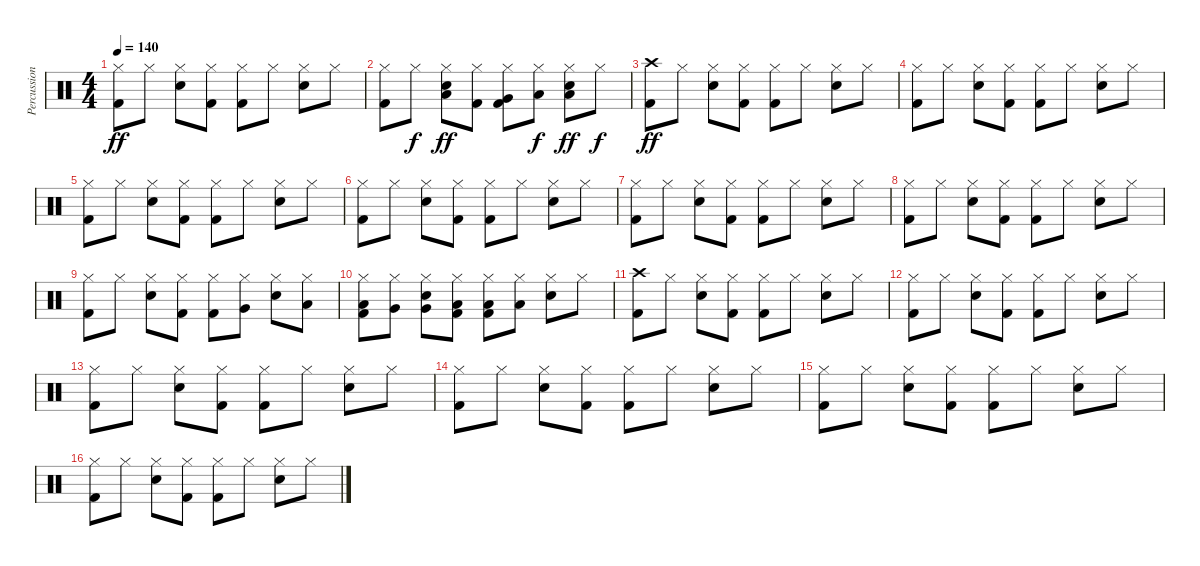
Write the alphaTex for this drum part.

\track ("Percussion" "Percussion") {instrument percussion}
\staff {score}
\articulation defaults
\ts (4 4)
\tempo 140
\clef neutral
\ks c
("Hi-Hat (closed)" "Kick (hit) 2").8{dy ff} "Hi-Hat (closed)".8 ("Hi-Hat (closed)" "Snare (hit) 2").8 ("Hi-Hat (closed)" "Kick (hit) 2").8 ("Hi-Hat (closed)" "Kick (hit) 2").8 "Hi-Hat (closed)".8 ("Hi-Hat (closed)" "Snare (hit) 2").8 "Hi-Hat (closed)".8 |
("Hi-Hat (closed)" "Kick (hit) 2").8 "Hi-Hat (closed)".8{dy f} ("Hi-Hat (closed)" "Snare (hit) 2" "Low Tom (hit)").8{dy ff} ("Hi-Hat (closed)" "Kick (hit) 2").8 ("Hi-Hat (closed)" "Kick (hit) 2" "Very Low Tom (hit)").8 ("Hi-Hat (closed)" "Low Floor Tom (hit)").8{dy f} ("Hi-Hat (closed)" "Snare (hit) 2" "Low Floor Tom (hit)").8{dy ff} "Hi-Hat (closed)".8{dy f} |
("Crash high (hit)" "Kick (hit) 2").8{dy ff} "Hi-Hat (closed)".8 ("Hi-Hat (closed)" "Snare (hit) 2").8 ("Hi-Hat (closed)" "Kick (hit) 2").8 ("Hi-Hat (closed)" "Kick (hit) 2").8 "Hi-Hat (closed)".8 ("Hi-Hat (closed)" "Snare (hit) 2").8 "Hi-Hat (closed)".8 |
("Hi-Hat (closed)" "Kick (hit) 2").8 "Hi-Hat (closed)".8 ("Hi-Hat (closed)" "Snare (hit) 2").8 ("Hi-Hat (closed)" "Kick (hit) 2").8 ("Hi-Hat (closed)" "Kick (hit) 2").8 "Hi-Hat (closed)".8 ("Hi-Hat (closed)" "Snare (hit) 2").8 "Hi-Hat (closed)".8 |
("Hi-Hat (closed)" "Kick (hit) 2").8 "Hi-Hat (closed)".8 ("Hi-Hat (closed)" "Snare (hit) 2").8 ("Hi-Hat (closed)" "Kick (hit) 2").8 ("Hi-Hat (closed)" "Kick (hit) 2").8 "Hi-Hat (closed)".8 ("Hi-Hat (closed)" "Snare (hit) 2").8 "Hi-Hat (closed)".8 |
("Hi-Hat (closed)" "Kick (hit) 2").8 "Hi-Hat (closed)".8 ("Hi-Hat (closed)" "Snare (hit) 2").8 ("Hi-Hat (closed)" "Kick (hit) 2").8 ("Hi-Hat (closed)" "Kick (hit) 2").8 "Hi-Hat (closed)".8 ("Hi-Hat (closed)" "Snare (hit) 2").8 "Hi-Hat (closed)".8 |
("Hi-Hat (closed)" "Kick (hit) 2").8 "Hi-Hat (closed)".8 ("Hi-Hat (closed)" "Snare (hit) 2").8 ("Hi-Hat (closed)" "Kick (hit) 2").8 ("Hi-Hat (closed)" "Kick (hit) 2").8 "Hi-Hat (closed)".8 ("Hi-Hat (closed)" "Snare (hit) 2").8 "Hi-Hat (closed)".8 |
("Hi-Hat (closed)" "Kick (hit) 2").8 "Hi-Hat (closed)".8 ("Hi-Hat (closed)" "Snare (hit) 2").8 ("Hi-Hat (closed)" "Kick (hit) 2").8 ("Hi-Hat (closed)" "Kick (hit) 2").8 "Hi-Hat (closed)".8 ("Hi-Hat (closed)" "Snare (hit) 2").8 "Hi-Hat (closed)".8 |
("Hi-Hat (closed)" "Kick (hit) 2").8 "Hi-Hat (closed)".8 ("Hi-Hat (closed)" "Snare (hit) 2").8 ("Hi-Hat (closed)" "Kick (hit) 2").8 ("Hi-Hat (closed)" "Kick (hit) 2").8 ("Hi-Hat (closed)" "Very Low Tom (hit)").8 ("Hi-Hat (closed)" "Snare (hit) 2").8 ("Hi-Hat (closed)" "Low Tom (hit)").8 |
("Hi-Hat (closed)" "Kick (hit) 2" "Low Tom (hit)").8 ("Hi-Hat (closed)" "Very Low Tom (hit)").8 ("Hi-Hat (closed)" "Snare (hit) 2" "Very Low Tom (hit)").8 ("Hi-Hat (closed)" "Kick (hit) 2" "Low Floor Tom (hit)").8 ("Hi-Hat (closed)" "Kick (hit) 2" "Low Floor Tom (hit)").8 ("Hi-Hat (closed)" "Low Floor Tom (hit)").8 ("Hi-Hat (closed)" "Snare (hit) 2").8 "Hi-Hat (closed)".8 |
("Crash high (hit)" "Kick (hit) 2").8 "Hi-Hat (closed)".8 ("Hi-Hat (closed)" "Snare (hit) 2").8 ("Hi-Hat (closed)" "Kick (hit) 2").8 ("Hi-Hat (closed)" "Kick (hit) 2").8 "Hi-Hat (closed)".8 ("Hi-Hat (closed)" "Snare (hit) 2").8 "Hi-Hat (closed)".8 |
("Hi-Hat (closed)" "Kick (hit) 2").8 "Hi-Hat (closed)".8 ("Hi-Hat (closed)" "Snare (hit) 2").8 ("Hi-Hat (closed)" "Kick (hit) 2").8 ("Hi-Hat (closed)" "Kick (hit) 2").8 "Hi-Hat (closed)".8 ("Hi-Hat (closed)" "Snare (hit) 2").8 "Hi-Hat (closed)".8 |
("Hi-Hat (closed)" "Kick (hit) 2").8 "Hi-Hat (closed)".8 ("Hi-Hat (closed)" "Snare (hit) 2").8 ("Hi-Hat (closed)" "Kick (hit) 2").8 ("Hi-Hat (closed)" "Kick (hit) 2").8 "Hi-Hat (closed)".8 ("Hi-Hat (closed)" "Snare (hit) 2").8 "Hi-Hat (closed)".8 |
("Hi-Hat (closed)" "Kick (hit) 2").8 "Hi-Hat (closed)".8 ("Hi-Hat (closed)" "Snare (hit) 2").8 ("Hi-Hat (closed)" "Kick (hit) 2").8 ("Hi-Hat (closed)" "Kick (hit) 2").8 "Hi-Hat (closed)".8 ("Hi-Hat (closed)" "Snare (hit) 2").8 "Hi-Hat (closed)".8 |
("Hi-Hat (closed)" "Kick (hit) 2").8 "Hi-Hat (closed)".8 ("Hi-Hat (closed)" "Snare (hit) 2").8 ("Hi-Hat (closed)" "Kick (hit) 2").8 ("Hi-Hat (closed)" "Kick (hit) 2").8 "Hi-Hat (closed)".8 ("Hi-Hat (closed)" "Snare (hit) 2").8 "Hi-Hat (closed)".8 |
("Hi-Hat (closed)" "Kick (hit) 2").8 "Hi-Hat (closed)".8 ("Hi-Hat (closed)" "Snare (hit) 2").8 ("Hi-Hat (closed)" "Kick (hit) 2").8 ("Hi-Hat (closed)" "Kick (hit) 2").8 "Hi-Hat (closed)".8 ("Hi-Hat (closed)" "Snare (hit) 2").8 "Hi-Hat (closed)".8
